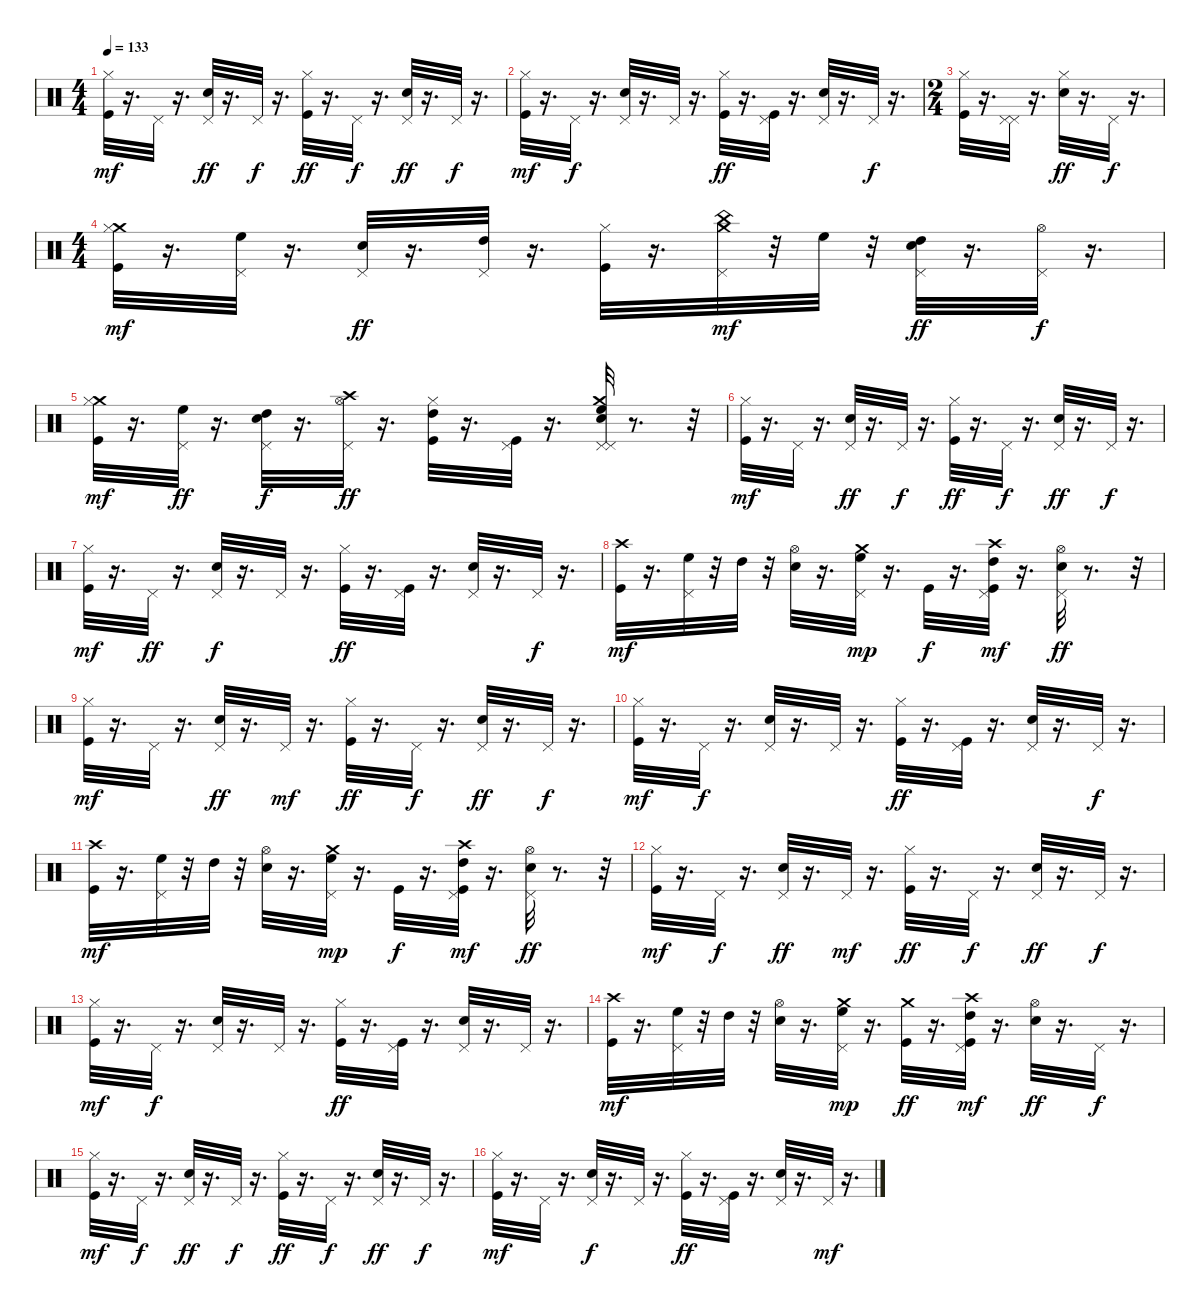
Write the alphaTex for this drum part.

\track "" {instrument percussion}
\staff {score}
\articulation defaults
\ts (4 4)
\tempo 133
\clef neutral
\ks c
("Hi-Hat (closed)" "Kick (hit)").32{dy mf} r.16{d} "Pedal Hi-Hat (hit)".32 r.16{d} ("Pedal Hi-Hat (hit)" "Snare (hit) 2").32{dy ff} r.16{d} "Pedal Hi-Hat (hit)".32{dy f} r.16{d} ("Hi-Hat (closed)" "Kick (hit)").32{dy ff} r.16{d} "Pedal Hi-Hat (hit)".32{dy f} r.16{d} ("Pedal Hi-Hat (hit)" "Snare (hit) 2").32{dy ff} r.16{d} "Pedal Hi-Hat (hit)".32{dy f} r.16{d} |
("Hi-Hat (closed)" "Kick (hit)").32{dy mf} r.16{d} "Pedal Hi-Hat (hit)".32{dy f} r.16{d} ("Pedal Hi-Hat (hit)" "Snare (hit) 2").32 r.16{d} "Pedal Hi-Hat (hit)".32 r.16{d} ("Hi-Hat (closed)" "Kick (hit)").32{dy ff} r.16{d} ("Pedal Hi-Hat (hit)" "Kick (hit)").32 r.16{d} ("Pedal Hi-Hat (hit)" "Snare (hit) 2").32 r.16{d} "Pedal Hi-Hat (hit)".32{dy f} r.16{d} |
\ts (2 4)
("Hi-Hat (closed)" "Kick (hit)").32 r.16{d} ("Pedal Hi-Hat (hit)" "Pedal Hi-Hat (hit)").32 r.16{d} ("Hi-Hat (closed)" "Snare (hit) 2").32{dy ff} r.16{d} "Pedal Hi-Hat (hit)".32{dy f} r.16{d} |
\ts (4 4)
("Crash medium (hit)" "Hi-Hat (closed)" "Kick (hit)").32{dy mf} r.16{d} ("Pedal Hi-Hat (hit)" "High Floor Tom (hit)").32 r.16{d} ("Pedal Hi-Hat (hit)" "Snare (hit) 2").32{dy ff} r.16{d} ("Pedal Hi-Hat (hit)" "High Tom (hit)").32 r.16{d} ("Hi-Hat (closed)" "Kick (hit)").32 r.16{d} ("Pedal Hi-Hat (hit)" "Crash medium (hit)" "China (hit)").32{dy mf} r.32 "High Floor Tom (hit)".32 r.32 ("High Tom (hit)" "Pedal Hi-Hat (hit)" "Snare (hit) 2").32{dy ff} r.16{d} ("Pedal Hi-Hat (hit)" "Hi-Hat (open)").32{dy f} r.16{d} |
("Crash medium (hit)" "Hi-Hat (closed)" "Kick (hit)").32{dy mf} r.16{d} ("Pedal Hi-Hat (hit)" "High Floor Tom (hit)").32{dy ff} r.16{d} ("High Tom (hit)" "Pedal Hi-Hat (hit)" "Snare (hit) 2").32{dy f} r.16{d} ("Pedal Hi-Hat (hit)" "Crash high (hit)" "Hi-Hat (open)").32{dy ff} r.16{d} ("High Tom (hit)" "Hi-Hat (closed)" "Kick (hit)").32 r.16{d} ("Pedal Hi-Hat (hit)" "Kick (hit)").32 r.16{d} ("Pedal Hi-Hat (hit)" "Crash medium (hit)" "High Floor Tom (hit)" "Pedal Hi-Hat (hit)" "Snare (hit) 2").32 r.8{d} r.32 |
("Hi-Hat (closed)" "Kick (hit)").32{dy mf} r.16{d} "Pedal Hi-Hat (hit)".32 r.16{d} ("Pedal Hi-Hat (hit)" "Snare (hit) 2").32{dy ff} r.16{d} "Pedal Hi-Hat (hit)".32{dy f} r.16{d} ("Hi-Hat (closed)" "Kick (hit)").32{dy ff} r.16{d} "Pedal Hi-Hat (hit)".32{dy f} r.16{d} ("Pedal Hi-Hat (hit)" "Snare (hit) 2").32{dy ff} r.16{d} "Pedal Hi-Hat (hit)".32{dy f} r.16{d} |
("Hi-Hat (closed)" "Kick (hit)").32{dy mf} r.16{d} "Pedal Hi-Hat (hit)".32{dy ff} r.16{d} ("Pedal Hi-Hat (hit)" "Snare (hit) 2").32{dy f} r.16{d} "Pedal Hi-Hat (hit)".32 r.16{d} ("Hi-Hat (closed)" "Kick (hit)").32{dy ff} r.16{d} ("Pedal Hi-Hat (hit)" "Kick (hit)").32 r.16{d} ("Pedal Hi-Hat (hit)" "Snare (hit) 2").32 r.16{d} "Pedal Hi-Hat (hit)".32{dy f} r.16{d} |
("Crash high (hit)" "Kick (hit)").32{dy mf} r.16{d} ("Pedal Hi-Hat (hit)" "High Floor Tom (hit)").32 r.32 "High Tom (hit)".32 r.32 ("Hi-Hat (open)" "Snare (hit) 2").32 r.16{d} ("Pedal Hi-Hat (hit)" "Crash medium (hit)" "High Floor Tom (hit)").32{dy mp} r.16{d} "Kick (hit)".32{dy f} r.16{d} ("Pedal Hi-Hat (hit)" "Crash high (hit)" "High Tom (hit)" "Kick (hit)").32{dy mf} r.16{d} ("Pedal Hi-Hat (hit)" "Hi-Hat (open)" "Snare (hit) 2").32{dy ff} r.8{d} r.32 |
("Hi-Hat (closed)" "Kick (hit)").32{dy mf} r.16{d} "Pedal Hi-Hat (hit)".32 r.16{d} ("Pedal Hi-Hat (hit)" "Snare (hit) 2").32{dy ff} r.16{d} "Pedal Hi-Hat (hit)".32{dy mf} r.16{d} ("Hi-Hat (closed)" "Kick (hit)").32{dy ff} r.16{d} "Pedal Hi-Hat (hit)".32{dy f} r.16{d} ("Pedal Hi-Hat (hit)" "Snare (hit) 2").32{dy ff} r.16{d} "Pedal Hi-Hat (hit)".32{dy f} r.16{d} |
("Hi-Hat (closed)" "Kick (hit)").32{dy mf} r.16{d} "Pedal Hi-Hat (hit)".32{dy f} r.16{d} ("Pedal Hi-Hat (hit)" "Snare (hit) 2").32 r.16{d} "Pedal Hi-Hat (hit)".32 r.16{d} ("Hi-Hat (closed)" "Kick (hit)").32{dy ff} r.16{d} ("Pedal Hi-Hat (hit)" "Kick (hit)").32 r.16{d} ("Pedal Hi-Hat (hit)" "Snare (hit) 2").32 r.16{d} "Pedal Hi-Hat (hit)".32{dy f} r.16{d} |
("Crash high (hit)" "Kick (hit)").32{dy mf} r.16{d} ("Pedal Hi-Hat (hit)" "High Floor Tom (hit)").32 r.32 "High Tom (hit)".32 r.32 ("Hi-Hat (open)" "Snare (hit) 2").32 r.16{d} ("Pedal Hi-Hat (hit)" "Crash medium (hit)" "High Floor Tom (hit)").32{dy mp} r.16{d} "Kick (hit)".32{dy f} r.16{d} ("Pedal Hi-Hat (hit)" "Crash high (hit)" "High Tom (hit)" "Kick (hit)").32{dy mf} r.16{d} ("Pedal Hi-Hat (hit)" "Hi-Hat (open)" "Snare (hit) 2").32{dy ff} r.8{d} r.32 |
("Hi-Hat (closed)" "Kick (hit)").32{dy mf} r.16{d} "Pedal Hi-Hat (hit)".32{dy f} r.16{d} ("Pedal Hi-Hat (hit)" "Snare (hit) 2").32{dy ff} r.16{d} "Pedal Hi-Hat (hit)".32{dy mf} r.16{d} ("Hi-Hat (closed)" "Kick (hit)").32{dy ff} r.16{d} "Pedal Hi-Hat (hit)".32{dy f} r.16{d} ("Pedal Hi-Hat (hit)" "Snare (hit) 2").32{dy ff} r.16{d} "Pedal Hi-Hat (hit)".32{dy f} r.16{d} |
("Hi-Hat (closed)" "Kick (hit)").32{dy mf} r.16{d} "Pedal Hi-Hat (hit)".32{dy f} r.16{d} ("Pedal Hi-Hat (hit)" "Snare (hit) 2").32 r.16{d} "Pedal Hi-Hat (hit)".32 r.16{d} ("Hi-Hat (closed)" "Kick (hit)").32{dy ff} r.16{d} ("Pedal Hi-Hat (hit)" "Kick (hit)").32 r.16{d} ("Pedal Hi-Hat (hit)" "Snare (hit) 2").32 r.16{d} "Pedal Hi-Hat (hit)".32 r.16{d} |
("Crash high (hit)" "Kick (hit)").32{dy mf} r.16{d} ("Pedal Hi-Hat (hit)" "High Floor Tom (hit)").32 r.32 "High Tom (hit)".32 r.32 ("Hi-Hat (open)" "Snare (hit) 2").32 r.16{d} ("Pedal Hi-Hat (hit)" "Crash medium (hit)" "High Floor Tom (hit)").32{dy mp} r.16{d} ("Crash medium (hit)" "Kick (hit)").32{dy ff} r.16{d} ("Pedal Hi-Hat (hit)" "Crash high (hit)" "High Tom (hit)" "Kick (hit)").32{dy mf} r.16{d} ("Hi-Hat (open)" "Snare (hit) 2").32{dy ff} r.16{d} "Pedal Hi-Hat (hit)".32{dy f} r.16{d} |
("Hi-Hat (closed)" "Kick (hit)").32{dy mf} r.16{d} "Pedal Hi-Hat (hit)".32{dy f} r.16{d} ("Pedal Hi-Hat (hit)" "Snare (hit) 2").32{dy ff} r.16{d} "Pedal Hi-Hat (hit)".32{dy f} r.16{d} ("Hi-Hat (closed)" "Kick (hit)").32{dy ff} r.16{d} "Pedal Hi-Hat (hit)".32{dy f} r.16{d} ("Pedal Hi-Hat (hit)" "Snare (hit) 2").32{dy ff} r.16{d} "Pedal Hi-Hat (hit)".32{dy f} r.16{d} |
("Hi-Hat (closed)" "Kick (hit)").32{dy mf} r.16{d} "Pedal Hi-Hat (hit)".32 r.16{d} ("Pedal Hi-Hat (hit)" "Snare (hit) 2").32{dy f} r.16{d} "Pedal Hi-Hat (hit)".32 r.16{d} ("Hi-Hat (closed)" "Kick (hit)").32{dy ff} r.16{d} ("Pedal Hi-Hat (hit)" "Kick (hit)").32 r.16{d} ("Pedal Hi-Hat (hit)" "Snare (hit) 2").32 r.16{d} "Pedal Hi-Hat (hit)".32{dy mf} r.16{d}
